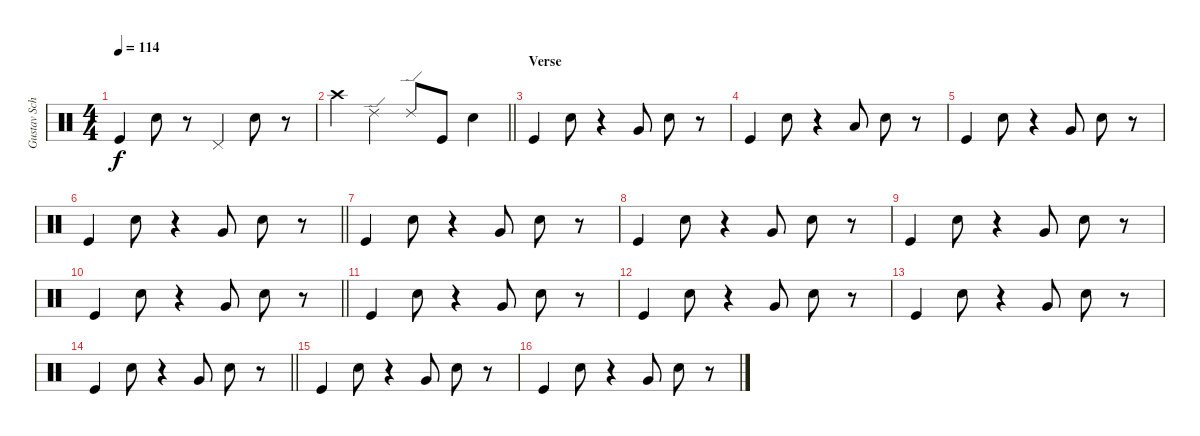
\track ("Gustav Schäfer" "Gustav Sch") {instrument percussion}
\staff {score}
\articulation defaults
\ts (4 4)
\tempo 114
\clef neutral
\ks c "Kick (hit)".4{dy f} "Electric Snare (hit)".8
r.8 "Pedal Hi-Hat (hit)".4 "Electric Snare (hit)".8 r.8 |
\barLineRight lightlight "Crash high (hit)".4 "Ride (edge) 2".4 "Ride (edge) 2".8 "Kick (hit)".8 "Electric Snare (hit)".4
|
\section ("" "Verse")
"Kick (hit)".4 "Electric Snare (hit)".8 r.4 "Very Low Tom (hit)".8 "Electric Snare (hit)".8 r.8 |
"Kick (hit)".4 "Electric Snare (hit)".8 r.4 "Low Tom (hit)".8 "Electric Snare (hit)".8 r.8 |
"Kick (hit)".4 "Electric Snare (hit)".8 r.4 "Very Low Tom (hit)".8 "Electric Snare (hit)".8 r.8 |
\barLineRight lightlight "Kick (hit)".4 "Electric Snare (hit)".8
r.4 "Very Low Tom (hit)".8 "Electric Snare (hit)".8 r.8 |
"Kick (hit)".4 "Electric Snare (hit)".8 r.4 "Very Low Tom (hit)".8 "Electric Snare (hit)".8 r.8 |
"Kick (hit)".4 "Electric Snare (hit)".8 r.4 "Very Low Tom (hit)".8 "Electric Snare (hit)".8 r.8 |
"Kick (hit)".4 "Electric Snare (hit)".8 r.4 "Very Low Tom (hit)".8 "Electric Snare (hit)".8 r.8 |
\barLineRight lightlight "Kick (hit)".4 "Electric Snare (hit)".8
r.4 "Very Low Tom (hit)".8 "Electric Snare (hit)".8 r.8 |
"Kick (hit)".4 "Electric Snare (hit)".8 r.4 "Very Low Tom (hit)".8 "Electric Snare (hit)".8 r.8 |
"Kick (hit)".4 "Electric Snare (hit)".8 r.4 "Very Low Tom (hit)".8 "Electric Snare (hit)".8 r.8 |
"Kick (hit)".4 "Electric Snare (hit)".8 r.4 "Very Low Tom (hit)".8 "Electric Snare (hit)".8 r.8 |
\barLineRight lightlight "Kick (hit)".4 "Electric Snare (hit)".8
r.4 "Very Low Tom (hit)".8 "Electric Snare (hit)".8 r.8 |
"Kick (hit)".4 "Electric Snare (hit)".8 r.4 "Very Low Tom (hit)".8 "Electric Snare (hit)".8 r.8 |
"Kick (hit)".4 "Electric Snare (hit)".8 r.4 "Very Low Tom (hit)".8 "Electric Snare (hit)".8 r.8
